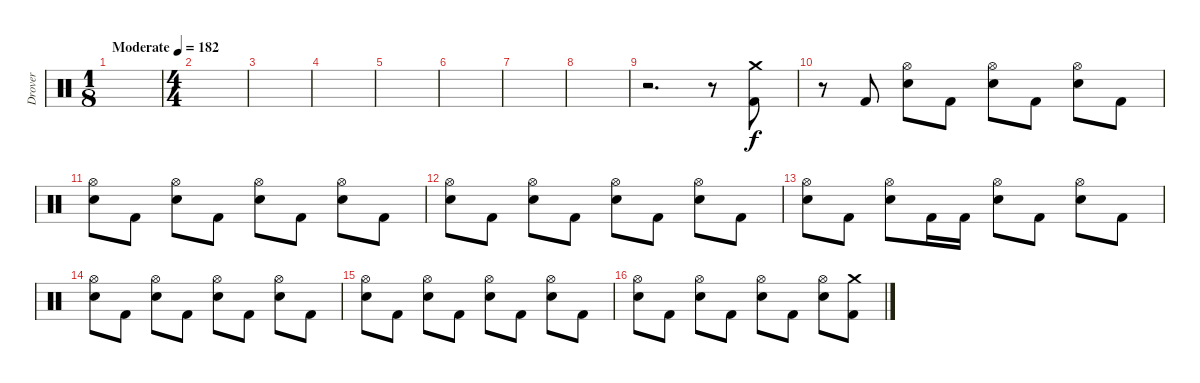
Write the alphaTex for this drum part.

\track ("Drover" "Drover") {instrument percussion}
\staff {score}
\articulation defaults
\ts (1 8)
\tempo (182 "Moderate")
\clef neutral
\ks c
|
\ts (4 4)
|
|
|
|
|
|
|
r.2{d} r.8 ("Crash medium (hit)" "Kick (hit) 2").8 |
r.8 "Kick (hit) 2".8 ("Hi-Hat (open)" "Snare (hit) 2").8 "Kick (hit) 2".8 ("Hi-Hat (open)" "Snare (hit) 2").8 "Kick (hit) 2".8 ("Hi-Hat (open)" "Snare (hit) 2").8 "Kick (hit) 2".8 |
("Hi-Hat (open)" "Snare (hit) 2").8 "Kick (hit) 2".8 ("Hi-Hat (open)" "Snare (hit) 2").8 "Kick (hit) 2".8 ("Hi-Hat (open)" "Snare (hit) 2").8 "Kick (hit) 2".8 ("Hi-Hat (open)" "Snare (hit) 2").8 "Kick (hit) 2".8 |
("Hi-Hat (open)" "Snare (hit) 2").8 "Kick (hit) 2".8 ("Hi-Hat (open)" "Snare (hit) 2").8 "Kick (hit) 2".8 ("Hi-Hat (open)" "Snare (hit) 2").8 "Kick (hit) 2".8 ("Hi-Hat (open)" "Snare (hit) 2").8 "Kick (hit) 2".8 |
("Hi-Hat (open)" "Snare (hit) 2").8 "Kick (hit) 2".8 ("Hi-Hat (open)" "Snare (hit) 2").8 "Kick (hit) 2".16 "Kick (hit) 2".16 ("Hi-Hat (open)" "Snare (hit) 2").8 "Kick (hit) 2".8 ("Hi-Hat (open)" "Snare (hit) 2").8 "Kick (hit) 2".8 |
("Hi-Hat (open)" "Snare (hit) 2").8 "Kick (hit) 2".8 ("Hi-Hat (open)" "Snare (hit) 2").8 "Kick (hit) 2".8 ("Hi-Hat (open)" "Snare (hit) 2").8 "Kick (hit) 2".8 ("Hi-Hat (open)" "Snare (hit) 2").8 "Kick (hit) 2".8 |
("Hi-Hat (open)" "Snare (hit) 2").8 "Kick (hit) 2".8 ("Hi-Hat (open)" "Snare (hit) 2").8 "Kick (hit) 2".8 ("Hi-Hat (open)" "Snare (hit) 2").8 "Kick (hit) 2".8 ("Hi-Hat (open)" "Snare (hit) 2").8 "Kick (hit) 2".8 |
("Hi-Hat (open)" "Snare (hit) 2").8 "Kick (hit) 2".8 ("Hi-Hat (open)" "Snare (hit) 2").8 "Kick (hit) 2".8 ("Hi-Hat (open)" "Snare (hit) 2").8 "Kick (hit) 2".8 ("Hi-Hat (open)" "Snare (hit) 2").8 ("Crash medium (hit)" "Kick (hit) 2").8
